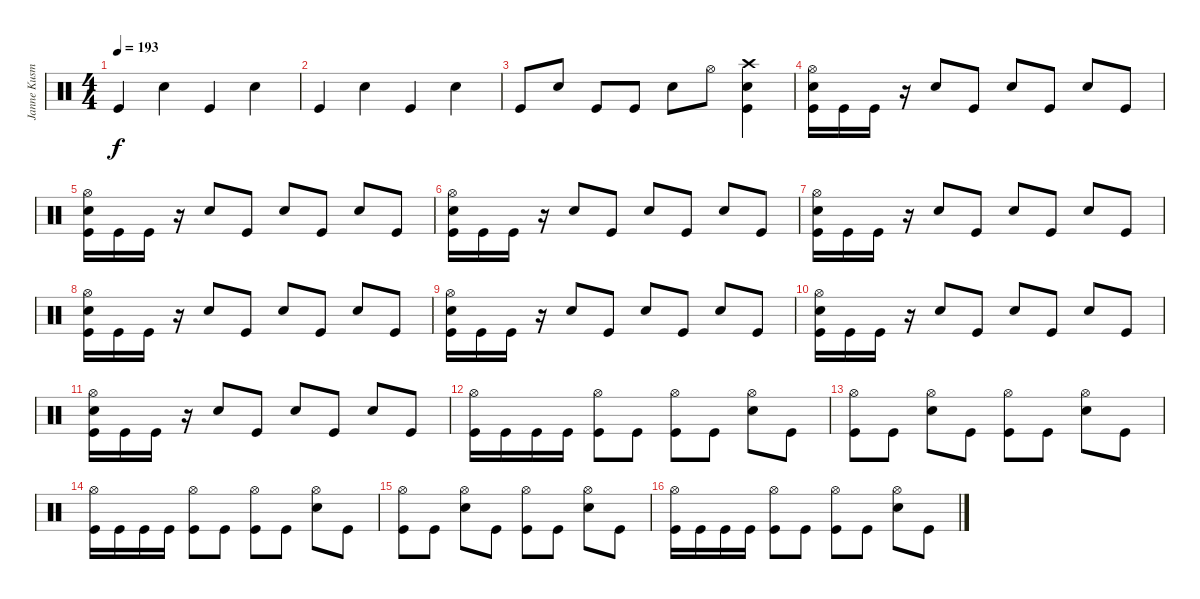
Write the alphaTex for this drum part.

\track ("Janne Kusmin " "Janne Kusm") {instrument percussion}
\staff {score}
\articulation defaults
\ts (4 4)
\tempo 193
\clef neutral
\ks c "Kick (hit)".4{dy f} "Snare (hit) 2".4 "Kick (hit)".4 "Snare (hit) 2".4
|
"Kick (hit)".4 "Snare (hit) 2".4 "Kick (hit)".4 "Snare (hit) 2".4 |
"Kick (hit)".8 "Snare (hit) 2".8 "Kick (hit)".8 "Kick (hit)".8 "Snare (hit) 2".8 "Hi-Hat (open)".8 ("Snare (hit) 2" "Crash high (hit)" "Kick (hit)").4 |
("Hi-Hat (open)" "Snare (hit) 2" "Kick (hit)").16 "Kick (hit)".16 "Kick (hit)".16 r.16 "Snare (hit) 2".8 "Kick (hit)".8 "Snare (hit) 2".8 "Kick (hit)".8 "Snare (hit) 2".8 "Kick (hit)".8 |
("Hi-Hat (open)" "Snare (hit) 2" "Kick (hit)").16 "Kick (hit)".16 "Kick (hit)".16 r.16 "Snare (hit) 2".8 "Kick (hit)".8 "Snare (hit) 2".8 "Kick (hit)".8 "Snare (hit) 2".8 "Kick (hit)".8 |
("Hi-Hat (open)" "Snare (hit) 2" "Kick (hit)").16 "Kick (hit)".16 "Kick (hit)".16 r.16 "Snare (hit) 2".8 "Kick (hit)".8 "Snare (hit) 2".8 "Kick (hit)".8 "Snare (hit) 2".8 "Kick (hit)".8 |
("Hi-Hat (open)" "Snare (hit) 2" "Kick (hit)").16 "Kick (hit)".16 "Kick (hit)".16 r.16 "Snare (hit) 2".8 "Kick (hit)".8 "Snare (hit) 2".8 "Kick (hit)".8 "Snare (hit) 2".8 "Kick (hit)".8 |
("Hi-Hat (open)" "Snare (hit) 2" "Kick (hit)").16 "Kick (hit)".16 "Kick (hit)".16 r.16 "Snare (hit) 2".8 "Kick (hit)".8 "Snare (hit) 2".8 "Kick (hit)".8 "Snare (hit) 2".8 "Kick (hit)".8 |
("Hi-Hat (open)" "Snare (hit) 2" "Kick (hit)").16 "Kick (hit)".16 "Kick (hit)".16 r.16 "Snare (hit) 2".8 "Kick (hit)".8 "Snare (hit) 2".8 "Kick (hit)".8 "Snare (hit) 2".8 "Kick (hit)".8 |
("Hi-Hat (open)" "Snare (hit) 2" "Kick (hit)").16 "Kick (hit)".16 "Kick (hit)".16 r.16 "Snare (hit) 2".8 "Kick (hit)".8 "Snare (hit) 2".8 "Kick (hit)".8 "Snare (hit) 2".8 "Kick (hit)".8 |
("Hi-Hat (open)" "Snare (hit) 2" "Kick (hit)").16 "Kick (hit)".16 "Kick (hit)".16 r.16 "Snare (hit) 2".8 "Kick (hit)".8 "Snare (hit) 2".8 "Kick (hit)".8 "Snare (hit) 2".8 "Kick (hit)".8 |
("Hi-Hat (open)" "Kick (hit)").16 "Kick (hit)".16 "Kick (hit)".16 "Kick (hit)".16 ("Hi-Hat (open)" "Kick (hit)").8 "Kick (hit)".8 ("Hi-Hat (open)" "Kick (hit)").8 "Kick (hit)".8 ("Hi-Hat (open)" "Snare (hit) 2").8 "Kick (hit)".8 |
("Hi-Hat (open)" "Kick (hit)").8 "Kick (hit)".8 ("Hi-Hat (open)" "Snare (hit) 2").8 "Kick (hit)".8 ("Hi-Hat (open)" "Kick (hit)").8 "Kick (hit)".8 ("Hi-Hat (open)" "Snare (hit) 2").8 "Kick (hit)".8 |
("Hi-Hat (open)" "Kick (hit)").16 "Kick (hit)".16 "Kick (hit)".16 "Kick (hit)".16 ("Hi-Hat (open)" "Kick (hit)").8 "Kick (hit)".8 ("Hi-Hat (open)" "Kick (hit)").8 "Kick (hit)".8 ("Hi-Hat (open)" "Snare (hit) 2").8 "Kick (hit)".8 |
("Hi-Hat (open)" "Kick (hit)").8 "Kick (hit)".8 ("Hi-Hat (open)" "Snare (hit) 2").8 "Kick (hit)".8 ("Hi-Hat (open)" "Kick (hit)").8 "Kick (hit)".8 ("Hi-Hat (open)" "Snare (hit) 2").8 "Kick (hit)".8 |
("Hi-Hat (open)" "Kick (hit)").16 "Kick (hit)".16 "Kick (hit)".16 "Kick (hit)".16 ("Hi-Hat (open)" "Kick (hit)").8 "Kick (hit)".8 ("Hi-Hat (open)" "Kick (hit)").8 "Kick (hit)".8 ("Hi-Hat (open)" "Snare (hit) 2").8 "Kick (hit)".8
